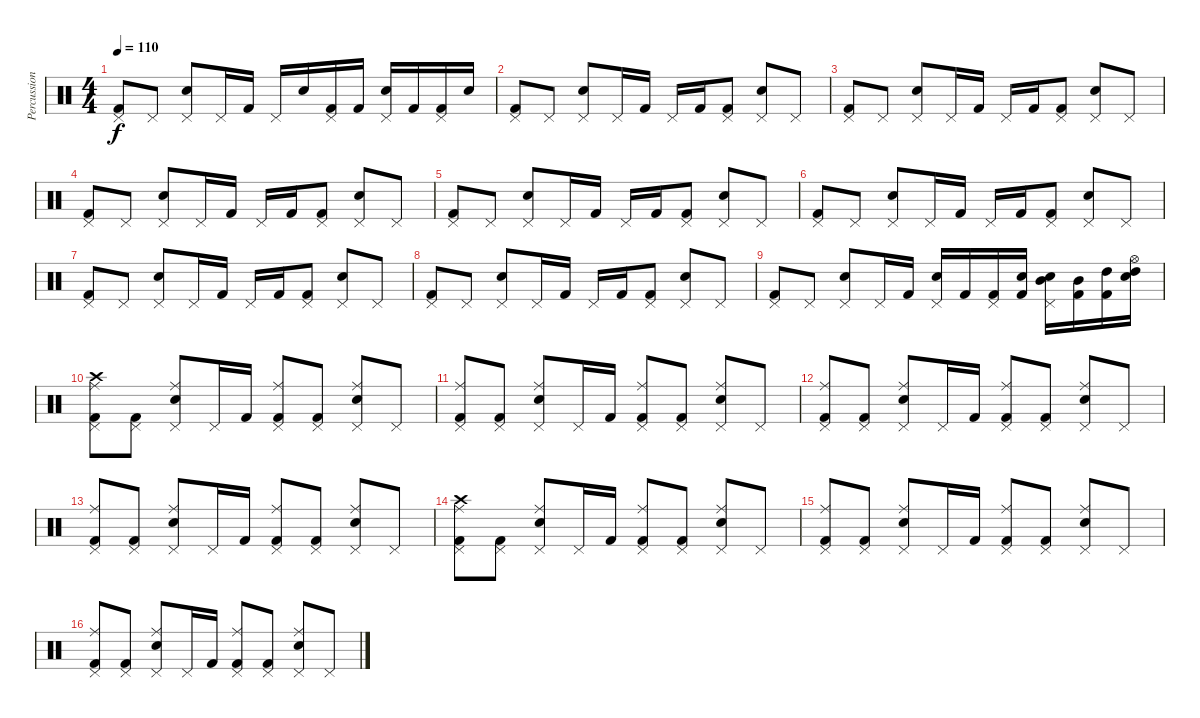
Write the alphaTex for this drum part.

\track ("Percussion" "Percussion") {instrument percussion}
\staff {score}
\articulation defaults
\ts (4 4)
\tempo 110
\clef neutral
\ks c
("Pedal Hi-Hat (hit)" "Kick (hit) 2").8{dy f} "Pedal Hi-Hat (hit)".8 ("Pedal Hi-Hat (hit)" "Electric Snare (hit)").8 "Pedal Hi-Hat (hit)".16 "Kick (hit) 2".16 "Pedal Hi-Hat (hit)".16 "Electric Snare (hit)".16 ("Pedal Hi-Hat (hit)" "Kick (hit) 2").16 "Kick (hit) 2".16 ("Pedal Hi-Hat (hit)" "Electric Snare (hit)").16 "Kick (hit) 2".16 ("Pedal Hi-Hat (hit)" "Kick (hit) 2").16 "Electric Snare (hit)".16 |
("Pedal Hi-Hat (hit)" "Kick (hit) 2").8 "Pedal Hi-Hat (hit)".8 ("Pedal Hi-Hat (hit)" "Electric Snare (hit)").8 "Pedal Hi-Hat (hit)".16 "Kick (hit) 2".16 "Pedal Hi-Hat (hit)".16 "Kick (hit) 2".16 ("Pedal Hi-Hat (hit)" "Kick (hit) 2").8 ("Pedal Hi-Hat (hit)" "Electric Snare (hit)").8 "Pedal Hi-Hat (hit)".8 |
("Pedal Hi-Hat (hit)" "Kick (hit) 2").8 "Pedal Hi-Hat (hit)".8 ("Pedal Hi-Hat (hit)" "Electric Snare (hit)").8 "Pedal Hi-Hat (hit)".16 "Kick (hit) 2".16 "Pedal Hi-Hat (hit)".16 "Kick (hit) 2".16 ("Pedal Hi-Hat (hit)" "Kick (hit) 2").8 ("Pedal Hi-Hat (hit)" "Electric Snare (hit)").8 "Pedal Hi-Hat (hit)".8 |
("Pedal Hi-Hat (hit)" "Kick (hit) 2").8 "Pedal Hi-Hat (hit)".8 ("Pedal Hi-Hat (hit)" "Electric Snare (hit)").8 "Pedal Hi-Hat (hit)".16 "Kick (hit) 2".16 "Pedal Hi-Hat (hit)".16 "Kick (hit) 2".16 ("Pedal Hi-Hat (hit)" "Kick (hit) 2").8 ("Pedal Hi-Hat (hit)" "Electric Snare (hit)").8 "Pedal Hi-Hat (hit)".8 |
("Pedal Hi-Hat (hit)" "Kick (hit) 2").8 "Pedal Hi-Hat (hit)".8 ("Pedal Hi-Hat (hit)" "Electric Snare (hit)").8 "Pedal Hi-Hat (hit)".16 "Kick (hit) 2".16 "Pedal Hi-Hat (hit)".16 "Kick (hit) 2".16 ("Pedal Hi-Hat (hit)" "Kick (hit) 2").8 ("Pedal Hi-Hat (hit)" "Electric Snare (hit)").8 "Pedal Hi-Hat (hit)".8 |
("Pedal Hi-Hat (hit)" "Kick (hit) 2").8 "Pedal Hi-Hat (hit)".8 ("Pedal Hi-Hat (hit)" "Electric Snare (hit)").8 "Pedal Hi-Hat (hit)".16 "Kick (hit) 2".16 "Pedal Hi-Hat (hit)".16 "Kick (hit) 2".16 ("Pedal Hi-Hat (hit)" "Kick (hit) 2").8 ("Pedal Hi-Hat (hit)" "Electric Snare (hit)").8 "Pedal Hi-Hat (hit)".8 |
("Pedal Hi-Hat (hit)" "Kick (hit) 2").8 "Pedal Hi-Hat (hit)".8 ("Pedal Hi-Hat (hit)" "Electric Snare (hit)").8 "Pedal Hi-Hat (hit)".16 "Kick (hit) 2".16 "Pedal Hi-Hat (hit)".16 "Kick (hit) 2".16 ("Pedal Hi-Hat (hit)" "Kick (hit) 2").8 ("Pedal Hi-Hat (hit)" "Electric Snare (hit)").8 "Pedal Hi-Hat (hit)".8 |
("Pedal Hi-Hat (hit)" "Kick (hit) 2").8 "Pedal Hi-Hat (hit)".8 ("Pedal Hi-Hat (hit)" "Electric Snare (hit)").8 "Pedal Hi-Hat (hit)".16 "Kick (hit) 2".16 "Pedal Hi-Hat (hit)".16 "Kick (hit) 2".16 ("Pedal Hi-Hat (hit)" "Kick (hit) 2").8 ("Pedal Hi-Hat (hit)" "Electric Snare (hit)").8 "Pedal Hi-Hat (hit)".8 |
("Pedal Hi-Hat (hit)" "Kick (hit) 2").8 "Pedal Hi-Hat (hit)".8 ("Pedal Hi-Hat (hit)" "Electric Snare (hit)").8 "Pedal Hi-Hat (hit)".16 "Kick (hit) 2".16 ("Pedal Hi-Hat (hit)" "Electric Snare (hit)").16 "Kick (hit) 2".16 ("Pedal Hi-Hat (hit)" "Kick (hit) 2").16 ("Electric Snare (hit)" "Kick (hit) 2").16 ("Pedal Hi-Hat (hit)" "Electric Snare (hit)" "Mid Tom (hit)").16 ("Kick (hit) 2" "Mid Tom (hit)").16 ("Kick (hit) 2" "High Tom (hit)").16 ("Hi-Hat (open)" "Electric Snare (hit)" "High Tom (hit)").16 |
("Pedal Hi-Hat (hit)" "Kick (hit) 2" "Ride (middle)" "Crash high (hit)").8 ("Pedal Hi-Hat (hit)" "Kick (hit) 2").8 ("Pedal Hi-Hat (hit)" "Electric Snare (hit)" "Ride (middle)").8 "Pedal Hi-Hat (hit)".16 "Kick (hit) 2".16 ("Pedal Hi-Hat (hit)" "Kick (hit) 2" "Ride (middle)").8 ("Pedal Hi-Hat (hit)" "Kick (hit) 2").8 ("Pedal Hi-Hat (hit)" "Electric Snare (hit)" "Ride (middle)").8 "Pedal Hi-Hat (hit)".8 |
("Pedal Hi-Hat (hit)" "Kick (hit) 2" "Ride (middle)").8 ("Pedal Hi-Hat (hit)" "Kick (hit) 2").8 ("Pedal Hi-Hat (hit)" "Electric Snare (hit)" "Ride (middle)").8 "Pedal Hi-Hat (hit)".16 "Kick (hit) 2".16 ("Pedal Hi-Hat (hit)" "Kick (hit) 2" "Ride (middle)").8 ("Pedal Hi-Hat (hit)" "Kick (hit) 2").8 ("Pedal Hi-Hat (hit)" "Electric Snare (hit)" "Ride (middle)").8 "Pedal Hi-Hat (hit)".8 |
("Pedal Hi-Hat (hit)" "Kick (hit) 2" "Ride (middle)").8 ("Pedal Hi-Hat (hit)" "Kick (hit) 2").8 ("Pedal Hi-Hat (hit)" "Electric Snare (hit)" "Ride (middle)").8 "Pedal Hi-Hat (hit)".16 "Kick (hit) 2".16 ("Pedal Hi-Hat (hit)" "Kick (hit) 2" "Ride (middle)").8 ("Pedal Hi-Hat (hit)" "Kick (hit) 2").8 ("Pedal Hi-Hat (hit)" "Electric Snare (hit)" "Ride (middle)").8 "Pedal Hi-Hat (hit)".8 |
("Pedal Hi-Hat (hit)" "Kick (hit) 2" "Ride (middle)").8 ("Pedal Hi-Hat (hit)" "Kick (hit) 2").8 ("Pedal Hi-Hat (hit)" "Electric Snare (hit)" "Ride (middle)").8 "Pedal Hi-Hat (hit)".16 "Kick (hit) 2".16 ("Pedal Hi-Hat (hit)" "Kick (hit) 2" "Ride (middle)").8 ("Pedal Hi-Hat (hit)" "Kick (hit) 2").8 ("Pedal Hi-Hat (hit)" "Electric Snare (hit)" "Ride (middle)").8 "Pedal Hi-Hat (hit)".8 |
("Pedal Hi-Hat (hit)" "Kick (hit) 2" "Ride (middle)" "Crash high (hit)").8 ("Pedal Hi-Hat (hit)" "Kick (hit) 2").8 ("Pedal Hi-Hat (hit)" "Electric Snare (hit)" "Ride (middle)").8 "Pedal Hi-Hat (hit)".16 "Kick (hit) 2".16 ("Pedal Hi-Hat (hit)" "Kick (hit) 2" "Ride (middle)").8 ("Pedal Hi-Hat (hit)" "Kick (hit) 2").8 ("Pedal Hi-Hat (hit)" "Electric Snare (hit)" "Ride (middle)").8 "Pedal Hi-Hat (hit)".8 |
("Pedal Hi-Hat (hit)" "Kick (hit) 2" "Ride (middle)").8 ("Pedal Hi-Hat (hit)" "Kick (hit) 2").8 ("Pedal Hi-Hat (hit)" "Electric Snare (hit)" "Ride (middle)").8 "Pedal Hi-Hat (hit)".16 "Kick (hit) 2".16 ("Pedal Hi-Hat (hit)" "Kick (hit) 2" "Ride (middle)").8 ("Pedal Hi-Hat (hit)" "Kick (hit) 2").8 ("Pedal Hi-Hat (hit)" "Electric Snare (hit)" "Ride (middle)").8 "Pedal Hi-Hat (hit)".8 |
("Pedal Hi-Hat (hit)" "Kick (hit) 2" "Ride (middle)").8 ("Pedal Hi-Hat (hit)" "Kick (hit) 2").8 ("Pedal Hi-Hat (hit)" "Electric Snare (hit)" "Ride (middle)").8 "Pedal Hi-Hat (hit)".16 "Kick (hit) 2".16 ("Pedal Hi-Hat (hit)" "Kick (hit) 2" "Ride (middle)").8 ("Pedal Hi-Hat (hit)" "Kick (hit) 2").8 ("Pedal Hi-Hat (hit)" "Electric Snare (hit)" "Ride (middle)").8 "Pedal Hi-Hat (hit)".8
